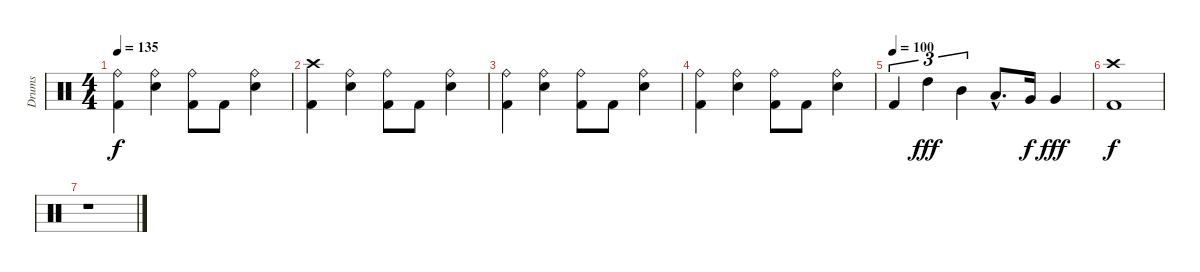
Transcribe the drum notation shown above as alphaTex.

\track ("Drums" "Drums") {instrument percussion}
\staff {score}
\articulation defaults
\ts (4 4)
\tempo 135
\clef neutral
\ks c
("Ride (bell)" "Kick (hit) 2").4{dy f} ("Ride (bell)" "Electric Snare (hit)").4 ("Ride (bell)" "Kick (hit) 2").8 "Kick (hit) 2".8 ("Ride (bell)" "Electric Snare (hit)").4 |
("Crash high (hit)" "Kick (hit) 2").4 ("Ride (bell)" "Electric Snare (hit)").4 ("Ride (bell)" "Kick (hit) 2").8 "Kick (hit) 2".8 ("Ride (bell)" "Electric Snare (hit)").4 |
("Ride (bell)" "Kick (hit) 2").4 ("Ride (bell)" "Electric Snare (hit)").4 ("Ride (bell)" "Kick (hit) 2").8 "Kick (hit) 2".8 ("Ride (bell)" "Electric Snare (hit)").4 |
("Ride (bell)" "Kick (hit) 2").4 ("Ride (bell)" "Electric Snare (hit)").4 ("Ride (bell)" "Kick (hit) 2").8 "Kick (hit) 2".8 ("Ride (bell)" "Electric Snare (hit)").4 |
\tempo (100)
"Kick (hit) 2".4{tu (3 2)} "High Tom (hit)".4{tu (3 2) dy fff} "Mid Tom (hit)".4{tu (3 2)} "Low Tom (hit)"{hac}.8{d} "Very Low Tom (hit)".16{dy f} "Very Low Tom (hit)".4{dy fff} |
("Crash high (hit)" "Kick (hit) 2").1{dy f} |
r.1
